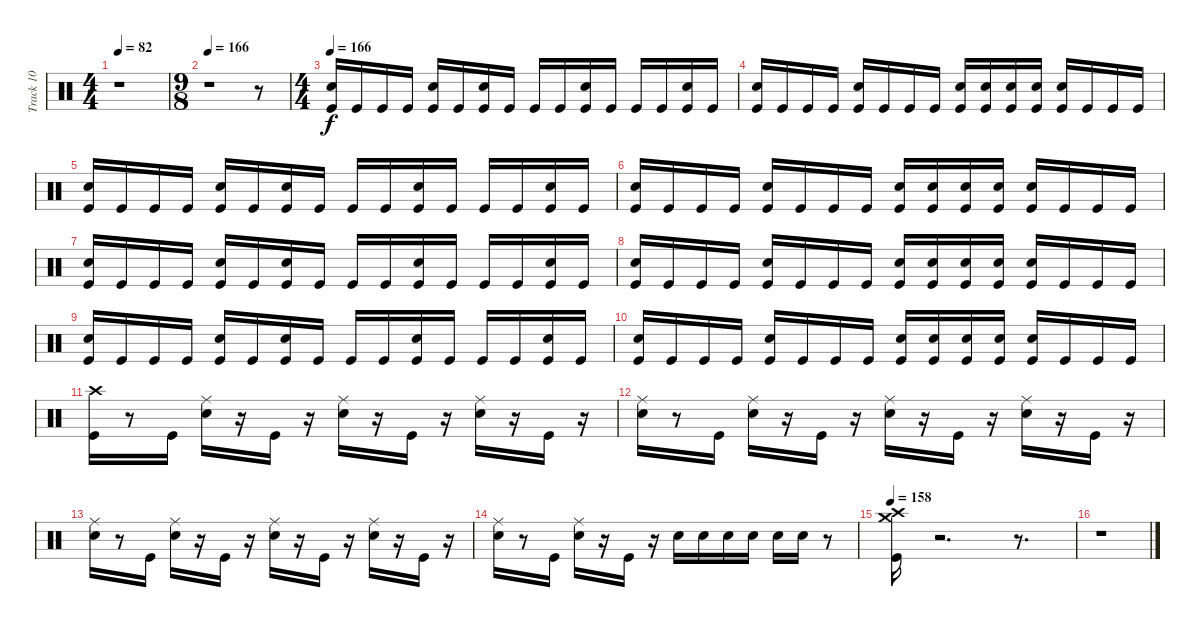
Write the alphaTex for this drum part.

\track ("Track 10" "Track 10") {instrument percussion}
\staff {score}
\articulation defaults
\ts (4 4)
\tempo 82
\clef neutral
\ks c
r.1{dy f} |
\ts (9 8)
\tempo 166
r.1 r.8 |
\ts (4 4)
\tempo 166
("Kick (hit)" "Snare (hit) 2").16 "Kick (hit)".16 "Kick (hit)".16 "Kick (hit)".16 ("Kick (hit)" "Snare (hit) 2").16 "Kick (hit)".16 ("Kick (hit)" "Snare (hit) 2").16 "Kick (hit)".16 "Kick (hit)".16 "Kick (hit)".16 ("Kick (hit)" "Snare (hit) 2").16 "Kick (hit)".16 "Kick (hit)".16 "Kick (hit)".16 ("Kick (hit)" "Snare (hit) 2").16 "Kick (hit)".16 |
("Kick (hit)" "Snare (hit) 2").16 "Kick (hit)".16 "Kick (hit)".16 "Kick (hit)".16 ("Kick (hit)" "Snare (hit) 2").16 "Kick (hit)".16 "Kick (hit)".16 "Kick (hit)".16 ("Kick (hit)" "Snare (hit) 2").16 ("Kick (hit)" "Snare (hit) 2").16 ("Kick (hit)" "Snare (hit) 2").16 ("Kick (hit)" "Snare (hit) 2").16 ("Kick (hit)" "Snare (hit) 2").16 "Kick (hit)".16 "Kick (hit)".16 "Kick (hit)".16 |
("Kick (hit)" "Snare (hit) 2").16 "Kick (hit)".16 "Kick (hit)".16 "Kick (hit)".16 ("Kick (hit)" "Snare (hit) 2").16 "Kick (hit)".16 ("Kick (hit)" "Snare (hit) 2").16 "Kick (hit)".16 "Kick (hit)".16 "Kick (hit)".16 ("Kick (hit)" "Snare (hit) 2").16 "Kick (hit)".16 "Kick (hit)".16 "Kick (hit)".16 ("Kick (hit)" "Snare (hit) 2").16 "Kick (hit)".16 |
("Kick (hit)" "Snare (hit) 2").16 "Kick (hit)".16 "Kick (hit)".16 "Kick (hit)".16 ("Kick (hit)" "Snare (hit) 2").16 "Kick (hit)".16 "Kick (hit)".16 "Kick (hit)".16 ("Kick (hit)" "Snare (hit) 2").16 ("Kick (hit)" "Snare (hit) 2").16 ("Kick (hit)" "Snare (hit) 2").16 ("Kick (hit)" "Snare (hit) 2").16 ("Kick (hit)" "Snare (hit) 2").16 "Kick (hit)".16 "Kick (hit)".16 "Kick (hit)".16 |
("Kick (hit)" "Snare (hit) 2").16 "Kick (hit)".16 "Kick (hit)".16 "Kick (hit)".16 ("Kick (hit)" "Snare (hit) 2").16 "Kick (hit)".16 ("Kick (hit)" "Snare (hit) 2").16 "Kick (hit)".16 "Kick (hit)".16 "Kick (hit)".16 ("Kick (hit)" "Snare (hit) 2").16 "Kick (hit)".16 "Kick (hit)".16 "Kick (hit)".16 ("Kick (hit)" "Snare (hit) 2").16 "Kick (hit)".16 |
("Kick (hit)" "Snare (hit) 2").16 "Kick (hit)".16 "Kick (hit)".16 "Kick (hit)".16 ("Kick (hit)" "Snare (hit) 2").16 "Kick (hit)".16 "Kick (hit)".16 "Kick (hit)".16 ("Kick (hit)" "Snare (hit) 2").16 ("Kick (hit)" "Snare (hit) 2").16 ("Kick (hit)" "Snare (hit) 2").16 ("Kick (hit)" "Snare (hit) 2").16 ("Kick (hit)" "Snare (hit) 2").16 "Kick (hit)".16 "Kick (hit)".16 "Kick (hit)".16 |
("Kick (hit)" "Snare (hit) 2").16 "Kick (hit)".16 "Kick (hit)".16 "Kick (hit)".16 ("Kick (hit)" "Snare (hit) 2").16 "Kick (hit)".16 ("Kick (hit)" "Snare (hit) 2").16 "Kick (hit)".16 "Kick (hit)".16 "Kick (hit)".16 ("Kick (hit)" "Snare (hit) 2").16 "Kick (hit)".16 "Kick (hit)".16 "Kick (hit)".16 ("Kick (hit)" "Snare (hit) 2").16 "Kick (hit)".16 |
("Kick (hit)" "Snare (hit) 2").16 "Kick (hit)".16 "Kick (hit)".16 "Kick (hit)".16 ("Kick (hit)" "Snare (hit) 2").16 "Kick (hit)".16 "Kick (hit)".16 "Kick (hit)".16 ("Kick (hit)" "Snare (hit) 2").16 ("Kick (hit)" "Snare (hit) 2").16 ("Kick (hit)" "Snare (hit) 2").16 ("Kick (hit)" "Snare (hit) 2").16 ("Kick (hit)" "Snare (hit) 2").16 "Kick (hit)".16 "Kick (hit)".16 "Kick (hit)".16 |
("Kick (hit)" "Crash high (hit)").16 r.8 "Kick (hit)".16 ("Snare (hit) 2" "Ride (middle)").16 r.16 "Kick (hit)".16 r.16 ("Snare (hit) 2" "Ride (middle)").16 r.16 "Kick (hit)".16 r.16 ("Snare (hit) 2" "Ride (middle)").16 r.16 "Kick (hit)".16 r.16 |
("Snare (hit) 2" "Ride (middle)").16 r.8 "Kick (hit)".16 ("Snare (hit) 2" "Ride (middle)").16 r.16 "Kick (hit)".16 r.16 ("Snare (hit) 2" "Ride (middle)").16 r.16 "Kick (hit)".16 r.16 ("Snare (hit) 2" "Ride (middle)").16 r.16 "Kick (hit)".16 r.16 |
("Snare (hit) 2" "Ride (middle)").16 r.8 "Kick (hit)".16 ("Snare (hit) 2" "Ride (middle)").16 r.16 "Kick (hit)".16 r.16 ("Snare (hit) 2" "Ride (middle)").16 r.16 "Kick (hit)".16 r.16 ("Snare (hit) 2" "Ride (middle)").16 r.16 "Kick (hit)".16 r.16 |
("Snare (hit) 2" "Ride (middle)").16 r.8 "Kick (hit)".16 ("Snare (hit) 2" "Ride (middle)").16 r.16 "Kick (hit)".16 r.16 "Snare (hit) 2".16 "Snare (hit) 2".16 "Snare (hit) 2".16 "Snare (hit) 2".16 "Snare (hit) 2".16 "Snare (hit) 2".16 r.8 |
\tempo 158
("Kick (hit)" "Crash high (hit)" "Crash medium (hit)").16 r.2{d} r.8{d} |
r.1
